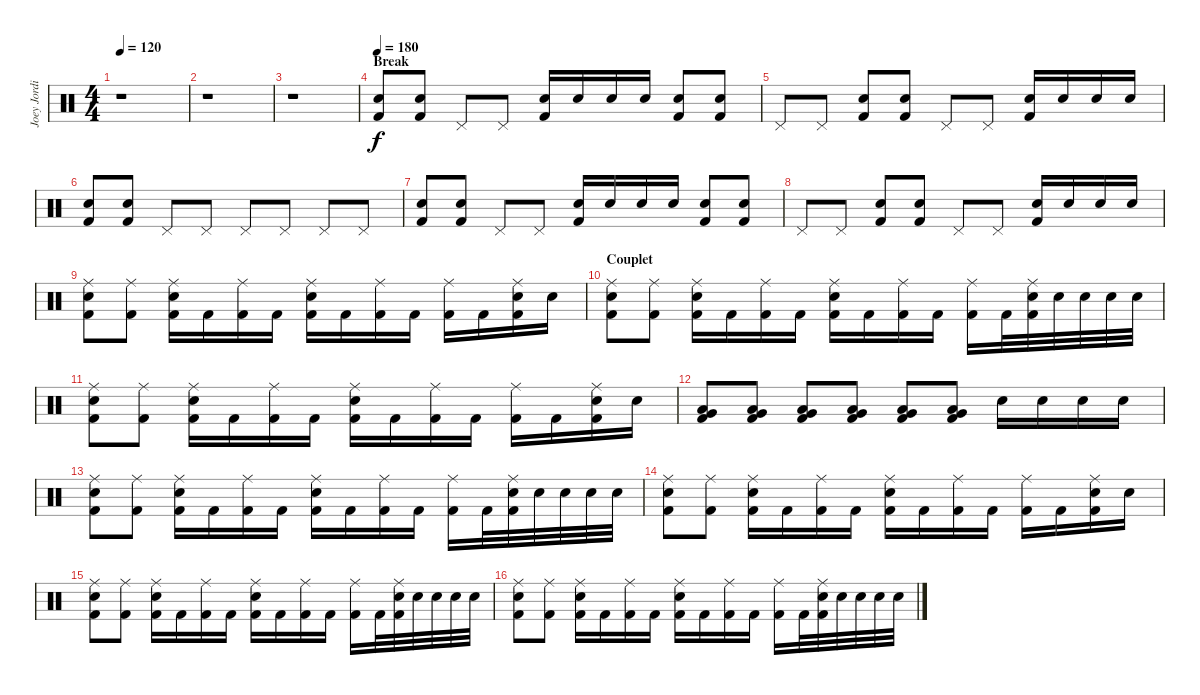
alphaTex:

\track ("Joey Jordison" "Joey Jordi") {instrument percussion}
\staff {score}
\articulation defaults
\ts (4 4)
\tempo 120
\clef neutral
\ks c
r.1{dy f} |
r.1 |
r.1 |
\section ("" "Break")
\tempo 180
("Kick (hit) 2" "Electric Snare (hit)").8 ("Kick (hit) 2" "Electric Snare (hit)").8 "Pedal Hi-Hat (hit)".8 "Pedal Hi-Hat (hit)".8 ("Kick (hit) 2" "Electric Snare (hit)").16 "Electric Snare (hit)".16 "Electric Snare (hit)".16 "Electric Snare (hit)".16 ("Kick (hit) 2" "Electric Snare (hit)").8 ("Kick (hit) 2" "Electric Snare (hit)").8 |
"Pedal Hi-Hat (hit)".8 "Pedal Hi-Hat (hit)".8 ("Kick (hit) 2" "Electric Snare (hit)").8 ("Kick (hit) 2" "Electric Snare (hit)").8 "Pedal Hi-Hat (hit)".8 "Pedal Hi-Hat (hit)".8 ("Kick (hit) 2" "Electric Snare (hit)").16 "Electric Snare (hit)".16 "Electric Snare (hit)".16 "Electric Snare (hit)".16 |
("Kick (hit) 2" "Electric Snare (hit)").8 ("Kick (hit) 2" "Electric Snare (hit)").8 "Pedal Hi-Hat (hit)".8 "Pedal Hi-Hat (hit)".8 "Pedal Hi-Hat (hit)".8 "Pedal Hi-Hat (hit)".8 "Pedal Hi-Hat (hit)".8 "Pedal Hi-Hat (hit)".8 |
("Kick (hit) 2" "Electric Snare (hit)").8 ("Kick (hit) 2" "Electric Snare (hit)").8 "Pedal Hi-Hat (hit)".8 "Pedal Hi-Hat (hit)".8 ("Kick (hit) 2" "Electric Snare (hit)").16 "Electric Snare (hit)".16 "Electric Snare (hit)".16 "Electric Snare (hit)".16 ("Kick (hit) 2" "Electric Snare (hit)").8 ("Kick (hit) 2" "Electric Snare (hit)").8 |
"Pedal Hi-Hat (hit)".8 "Pedal Hi-Hat (hit)".8 ("Kick (hit) 2" "Electric Snare (hit)").8 ("Kick (hit) 2" "Electric Snare (hit)").8 "Pedal Hi-Hat (hit)".8 "Pedal Hi-Hat (hit)".8 ("Kick (hit) 2" "Electric Snare (hit)").16 "Electric Snare (hit)".16 "Electric Snare (hit)".16 "Electric Snare (hit)".16 |
("Ride (middle)" "Kick (hit) 2" "Electric Snare (hit)").8 ("Ride (middle)" "Kick (hit) 2").8 ("Ride (middle)" "Electric Snare (hit)" "Kick (hit) 2").16 "Kick (hit) 2".16 ("Ride (middle)" "Kick (hit) 2").16 "Kick (hit) 2".16 ("Ride (middle)" "Kick (hit) 2" "Electric Snare (hit)").16 "Kick (hit) 2".16 ("Ride (middle)" "Kick (hit) 2").16 "Kick (hit) 2".16 ("Ride (middle)" "Kick (hit) 2").16 "Kick (hit) 2".16 ("Ride (middle)" "Kick (hit) 2" "Electric Snare (hit)").16 "Electric Snare (hit)".16 |
\section ("" "Couplet")
("Ride (middle)" "Kick (hit) 2" "Electric Snare (hit)").8 ("Ride (middle)" "Kick (hit) 2").8 ("Ride (middle)" "Electric Snare (hit)" "Kick (hit) 2").16 "Kick (hit) 2".16 ("Ride (middle)" "Kick (hit) 2").16 "Kick (hit) 2".16 ("Ride (middle)" "Kick (hit) 2" "Electric Snare (hit)").16 "Kick (hit) 2".16 ("Ride (middle)" "Kick (hit) 2").16 "Kick (hit) 2".16 ("Ride (middle)" "Kick (hit) 2").16 "Kick (hit) 2".32 ("Ride (middle)" "Kick (hit) 2" "Electric Snare (hit)").32 "Electric Snare (hit)".32 "Electric Snare (hit)".32 "Electric Snare (hit)".32 "Electric Snare (hit)".32 |
("Ride (middle)" "Kick (hit) 2" "Electric Snare (hit)").8 ("Ride (middle)" "Kick (hit) 2").8 ("Ride (middle)" "Electric Snare (hit)" "Kick (hit) 2").16 "Kick (hit) 2".16 ("Ride (middle)" "Kick (hit) 2").16 "Kick (hit) 2".16 ("Ride (middle)" "Kick (hit) 2" "Electric Snare (hit)").16 "Kick (hit) 2".16 ("Ride (middle)" "Kick (hit) 2").16 "Kick (hit) 2".16 ("Ride (middle)" "Kick (hit) 2").16 "Kick (hit) 2".16 ("Ride (middle)" "Kick (hit) 2" "Electric Snare (hit)").16 "Electric Snare (hit)".16 |
("Very Low Tom (hit)" "Low Tom (hit)" "Kick (hit) 2").8 ("Very Low Tom (hit)" "Low Tom (hit)" "Kick (hit) 2").8 ("Very Low Tom (hit)" "Low Tom (hit)" "Kick (hit) 2").8 ("Very Low Tom (hit)" "Low Tom (hit)" "Kick (hit) 2").8 ("Very Low Tom (hit)" "Low Tom (hit)" "Kick (hit) 2").8 ("Very Low Tom (hit)" "Low Tom (hit)" "Kick (hit) 2").8 "Electric Snare (hit)".16 "Electric Snare (hit)".16 "Electric Snare (hit)".16 "Electric Snare (hit)".16 |
("Ride (middle)" "Kick (hit) 2" "Electric Snare (hit)").8 ("Ride (middle)" "Kick (hit) 2").8 ("Ride (middle)" "Electric Snare (hit)" "Kick (hit) 2").16 "Kick (hit) 2".16 ("Ride (middle)" "Kick (hit) 2").16 "Kick (hit) 2".16 ("Ride (middle)" "Kick (hit) 2" "Electric Snare (hit)").16 "Kick (hit) 2".16 ("Ride (middle)" "Kick (hit) 2").16 "Kick (hit) 2".16 ("Ride (middle)" "Kick (hit) 2").16 "Kick (hit) 2".32 ("Ride (middle)" "Kick (hit) 2" "Electric Snare (hit)").32 "Electric Snare (hit)".32 "Electric Snare (hit)".32 "Electric Snare (hit)".32 "Electric Snare (hit)".32 |
("Ride (middle)" "Kick (hit) 2" "Electric Snare (hit)").8 ("Ride (middle)" "Kick (hit) 2").8 ("Ride (middle)" "Electric Snare (hit)" "Kick (hit) 2").16 "Kick (hit) 2".16 ("Ride (middle)" "Kick (hit) 2").16 "Kick (hit) 2".16 ("Ride (middle)" "Kick (hit) 2" "Electric Snare (hit)").16 "Kick (hit) 2".16 ("Ride (middle)" "Kick (hit) 2").16 "Kick (hit) 2".16 ("Ride (middle)" "Kick (hit) 2").16 "Kick (hit) 2".16 ("Ride (middle)" "Kick (hit) 2" "Electric Snare (hit)").16 "Electric Snare (hit)".16 |
("Ride (middle)" "Kick (hit) 2" "Electric Snare (hit)").8 ("Ride (middle)" "Kick (hit) 2").8 ("Ride (middle)" "Electric Snare (hit)" "Kick (hit) 2").16 "Kick (hit) 2".16 ("Ride (middle)" "Kick (hit) 2").16 "Kick (hit) 2".16 ("Ride (middle)" "Kick (hit) 2" "Electric Snare (hit)").16 "Kick (hit) 2".16 ("Ride (middle)" "Kick (hit) 2").16 "Kick (hit) 2".16 ("Ride (middle)" "Kick (hit) 2").16 "Kick (hit) 2".32 ("Ride (middle)" "Kick (hit) 2" "Electric Snare (hit)").32 "Electric Snare (hit)".32 "Electric Snare (hit)".32 "Electric Snare (hit)".32 "Electric Snare (hit)".32 |
("Ride (middle)" "Kick (hit) 2" "Electric Snare (hit)").8 ("Ride (middle)" "Kick (hit) 2").8 ("Ride (middle)" "Electric Snare (hit)" "Kick (hit) 2").16 "Kick (hit) 2".16 ("Ride (middle)" "Kick (hit) 2").16 "Kick (hit) 2".16 ("Ride (middle)" "Kick (hit) 2" "Electric Snare (hit)").16 "Kick (hit) 2".16 ("Ride (middle)" "Kick (hit) 2").16 "Kick (hit) 2".16 ("Ride (middle)" "Kick (hit) 2").16 "Kick (hit) 2".32 ("Ride (middle)" "Kick (hit) 2" "Electric Snare (hit)").32 "Electric Snare (hit)".32 "Electric Snare (hit)".32 "Electric Snare (hit)".32 "Electric Snare (hit)".32
